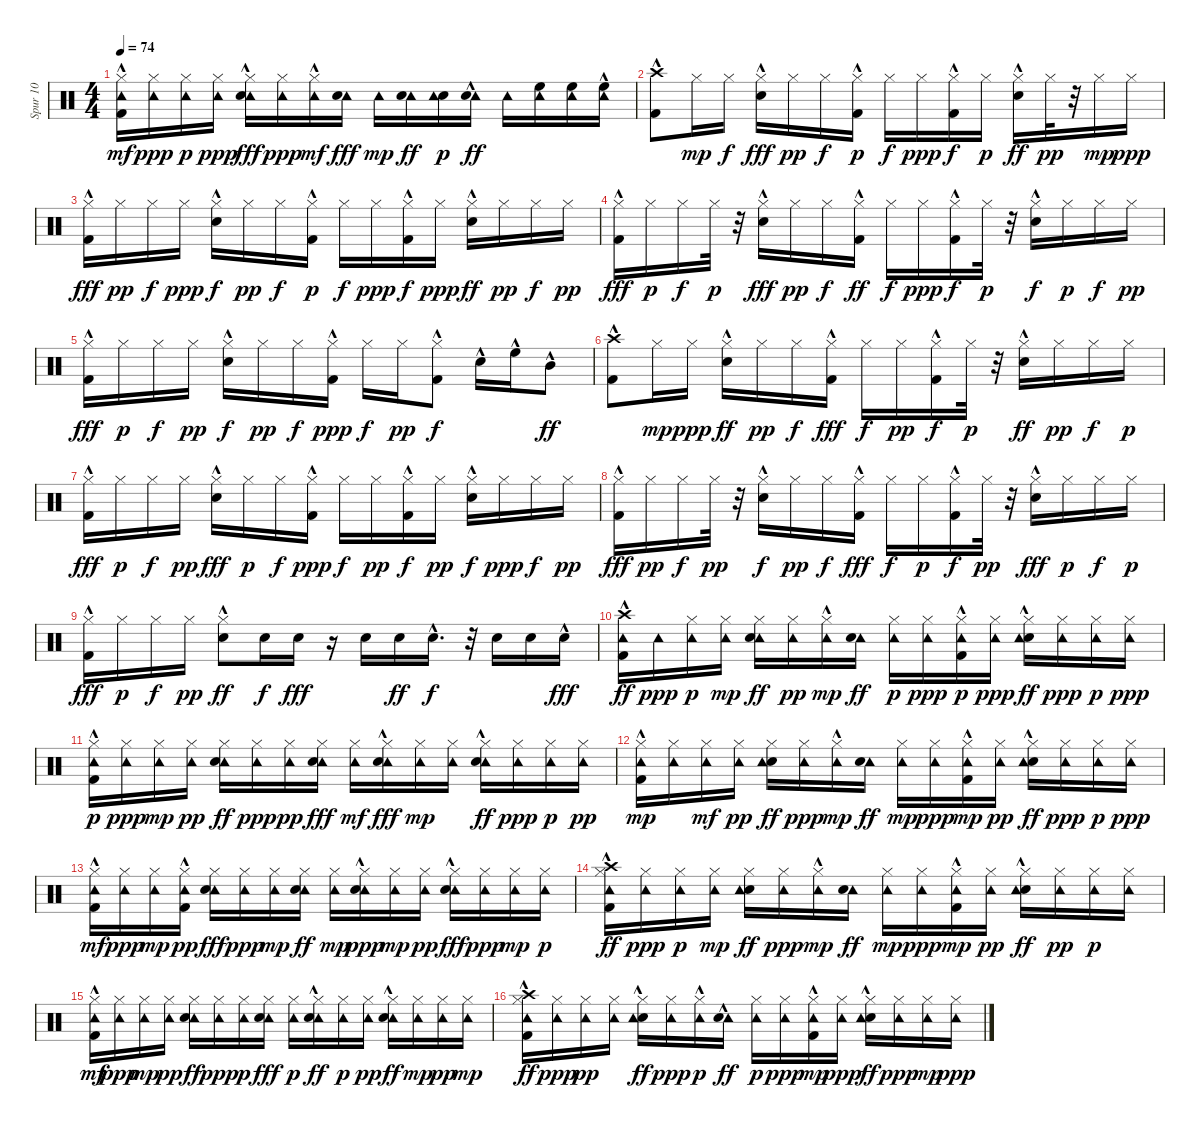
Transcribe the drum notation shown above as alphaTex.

\track ("Spur 10" "Spur 10") {instrument percussion}
\staff {score}
\articulation defaults
\ts (4 4)
\tempo 74
\clef neutral
\ks c
("Kick (hit) 2"{hac} "Hi-Hat (closed)" "Tambourine (hit)").16{dy mf} ("Hi-Hat (closed)" "Tambourine (hit)").16{dy ppp} ("Hi-Hat (closed)" "Tambourine (hit)").16{dy p} ("Hi-Hat (closed)" "Tambourine (hit)").16{dy ppp} ("Hi-Hat (closed)" "Tambourine (hit)" "Snare (hit) 2"{hac}).16{dy fff} ("Hi-Hat (closed)" "Tambourine (hit)").16{dy ppp} ("Hi-Hat (closed)"{hac} "Tambourine (hit)").16{dy mf} ("Tambourine (hit)" "Snare (hit) 2").16{dy fff} "Tambourine (hit)".16{dy mp} ("Tambourine (hit)" "Snare (hit) 2").16{dy ff} ("Snare (hit) 2" "Tambourine (hit)").16{dy p} ("Tambourine (hit)" "Snare (hit) 2"{hac}).16{dy ff} "Tambourine (hit)".16 ("Tambourine (hit)" "High Floor Tom (hit)").16 ("Tambourine (hit)" "High Floor Tom (hit)").16 ("Tambourine (hit)"{hac} "High Floor Tom (hit)"{hac}).16 |
("Kick (hit) 2"{hac} "Crash high (hit)").8 "Hi-Hat (closed)".16{dy mp} "Hi-Hat (closed)".16{dy f} ("Hi-Hat (closed)" "Snare (hit) 2"{hac}).16{dy fff} "Hi-Hat (closed)".16{dy pp} "Hi-Hat (closed)".16{dy f} ("Kick (hit) 2"{hac} "Hi-Hat (closed)").16{dy p} "Hi-Hat (closed)".16{dy f} "Hi-Hat (closed)".16{dy ppp} ("Hi-Hat (closed)" "Kick (hit) 2"{hac}).16{dy f} "Hi-Hat (closed)".16{dy p} ("Hi-Hat (closed)" "Snare (hit) 2"{hac}).16{dy ff} "Hi-Hat (closed)".32{dy pp} r.32 "Hi-Hat (closed)".16{dy mp} "Hi-Hat (closed)".16{dy ppp} |
("Hi-Hat (closed)" "Kick (hit) 2"{hac}).16{dy fff} "Hi-Hat (closed)".16{dy pp} "Hi-Hat (closed)".16{dy f} "Hi-Hat (closed)".16{dy ppp} ("Hi-Hat (closed)" "Snare (hit) 2"{hac}).16{dy f} "Hi-Hat (closed)".16{dy pp} "Hi-Hat (closed)".16{dy f} ("Kick (hit) 2"{hac} "Hi-Hat (closed)").16{dy p} "Hi-Hat (closed)".16{dy f} "Hi-Hat (closed)".16{dy ppp} ("Hi-Hat (closed)" "Kick (hit) 2"{hac}).16{dy f} "Hi-Hat (closed)".16{dy ppp} ("Hi-Hat (closed)" "Snare (hit) 2"{hac}).16{dy ff} "Hi-Hat (closed)".16{dy pp} "Hi-Hat (closed)".16{dy f} "Hi-Hat (closed)".16{dy pp} |
("Hi-Hat (closed)" "Kick (hit) 2"{hac}).16{dy fff} "Hi-Hat (closed)".16{dy p} "Hi-Hat (closed)".16{dy f} "Hi-Hat (closed)".32{dy p} r.32 ("Hi-Hat (closed)" "Snare (hit) 2"{hac}).16{dy fff} "Hi-Hat (closed)".16{dy pp} "Hi-Hat (closed)".16{dy f} ("Hi-Hat (closed)" "Kick (hit) 2"{hac}).16{dy ff} "Hi-Hat (closed)".16{dy f} "Hi-Hat (closed)".16{dy ppp} ("Hi-Hat (closed)" "Kick (hit) 2"{hac}).16{dy f} "Hi-Hat (closed)".32{dy p} r.32 ("Hi-Hat (closed)" "Snare (hit) 2"{hac}).16{dy f} "Hi-Hat (closed)".16{dy p} "Hi-Hat (closed)".16{dy f} "Hi-Hat (closed)".16{dy pp} |
("Hi-Hat (closed)" "Kick (hit) 2"{hac}).16{dy fff} "Hi-Hat (closed)".16{dy p} "Hi-Hat (closed)".16{dy f} "Hi-Hat (closed)".16{dy pp} ("Hi-Hat (closed)" "Snare (hit) 2"{hac}).16{dy f} "Hi-Hat (closed)".16{dy pp} "Hi-Hat (closed)".16{dy f} ("Kick (hit) 2"{hac} "Hi-Hat (closed)").16{dy ppp} "Hi-Hat (closed)".16{dy f} "Hi-Hat (closed)".16{dy pp} ("Hi-Hat (closed)"{hac} "Kick (hit) 2"{hac}).8{dy f} "Snare (hit) 2"{hac}.16 "High Floor Tom (hit)"{hac}.16 "Mid Tom (hit)"{hac}.8{dy ff} |
("Kick (hit) 2"{hac} "Crash high (hit)").8 "Hi-Hat (closed)".16{dy mp} "Hi-Hat (closed)".16{dy ppp} ("Hi-Hat (closed)" "Snare (hit) 2"{hac}).16{dy ff} "Hi-Hat (closed)".16{dy pp} "Hi-Hat (closed)".16{dy f} ("Hi-Hat (closed)" "Kick (hit) 2"{hac}).16{dy fff} "Hi-Hat (closed)".16{dy f} "Hi-Hat (closed)".16{dy pp} ("Kick (hit) 2"{hac} "Hi-Hat (closed)").16{dy f} "Hi-Hat (closed)".32{dy p} r.32 ("Hi-Hat (closed)" "Snare (hit) 2"{hac}).16{dy ff} "Hi-Hat (closed)".16{dy pp} "Hi-Hat (closed)".16{dy f} "Hi-Hat (closed)".16{dy p} |
("Hi-Hat (closed)" "Kick (hit) 2"{hac}).16{dy fff} "Hi-Hat (closed)".16{dy p} "Hi-Hat (closed)".16{dy f} "Hi-Hat (closed)".16{dy pp} ("Hi-Hat (closed)" "Snare (hit) 2"{hac}).16{dy fff} "Hi-Hat (closed)".16{dy p} "Hi-Hat (closed)".16{dy f} ("Kick (hit) 2"{hac} "Hi-Hat (closed)").16{dy ppp} "Hi-Hat (closed)".16{dy f} "Hi-Hat (closed)".16{dy pp} ("Hi-Hat (closed)" "Kick (hit) 2"{hac}).16{dy f} "Hi-Hat (closed)".16{dy pp} ("Hi-Hat (closed)" "Snare (hit) 2"{hac}).16{dy f} "Hi-Hat (closed)".16{dy ppp} "Hi-Hat (closed)".16{dy f} "Hi-Hat (closed)".16{dy pp} |
("Hi-Hat (closed)" "Kick (hit) 2"{hac}).16{dy fff} "Hi-Hat (closed)".16{dy pp} "Hi-Hat (closed)".16{dy f} "Hi-Hat (closed)".32{dy pp} r.32 ("Hi-Hat (closed)" "Snare (hit) 2"{hac}).16{dy f} "Hi-Hat (closed)".16{dy pp} "Hi-Hat (closed)".16{dy f} ("Hi-Hat (closed)" "Kick (hit) 2"{hac}).16{dy fff} "Hi-Hat (closed)".16{dy f} "Hi-Hat (closed)".16{dy p} ("Hi-Hat (closed)" "Kick (hit) 2"{hac}).16{dy f} "Hi-Hat (closed)".32{dy pp} r.32 ("Hi-Hat (closed)" "Snare (hit) 2"{hac}).16{dy fff} "Hi-Hat (closed)".16{dy p} "Hi-Hat (closed)".16{dy f} "Hi-Hat (closed)".16{dy p} |
("Kick (hit) 2"{hac} "Hi-Hat (closed)").16{dy fff} "Hi-Hat (closed)".16{dy p} "Hi-Hat (closed)".16{dy f} "Hi-Hat (closed)".16{dy pp} ("Hi-Hat (closed)"{hac} "Snare (hit) 2").8{dy ff} "Snare (hit) 2".16{dy f} "Snare (hit) 2".16{dy fff} r.16 "Snare (hit) 2".16 "Snare (hit) 2".16{dy ff} "Snare (hit) 2"{hac}.16{d dy f} r.32 "Snare (hit) 2".16 "Snare (hit) 2".16 "Snare (hit) 2"{hac}.16{dy fff} |
("Kick (hit) 2"{hac} "Tambourine (hit)" "Crash high (hit)").16{dy ff} "Tambourine (hit)".16{dy ppp} ("Tambourine (hit)" "Hi-Hat (closed)").16{dy p} ("Hi-Hat (closed)" "Tambourine (hit)").16{dy mp} ("Hi-Hat (closed)" "Tambourine (hit)" "Snare (hit) 2").16{dy ff} ("Hi-Hat (closed)" "Tambourine (hit)").16{dy pp} ("Hi-Hat (closed)"{hac} "Tambourine (hit)").16{dy mp} ("Tambourine (hit)" "Snare (hit) 2").16{dy ff} ("Hi-Hat (closed)" "Tambourine (hit)").16{dy p} ("Hi-Hat (closed)" "Tambourine (hit)").16{dy ppp} ("Hi-Hat (closed)" "Kick (hit) 2"{hac} "Tambourine (hit)").16{dy p} ("Hi-Hat (closed)" "Tambourine (hit)").16{dy ppp} ("Hi-Hat (closed)" "Snare (hit) 2"{hac} "Tambourine (hit)").16{dy ff} ("Hi-Hat (closed)" "Tambourine (hit)").16{dy ppp} ("Hi-Hat (closed)" "Tambourine (hit)").16{dy p} ("Hi-Hat (closed)" "Tambourine (hit)").16{dy ppp} |
("Hi-Hat (closed)" "Kick (hit) 2"{hac} "Tambourine (hit)").16{dy p} ("Hi-Hat (closed)" "Tambourine (hit)").16{dy ppp} ("Hi-Hat (closed)" "Tambourine (hit)").16{dy mp} ("Hi-Hat (closed)" "Tambourine (hit)").16{dy pp} ("Tambourine (hit)" "Hi-Hat (closed)" "Snare (hit) 2").16{dy ff} ("Hi-Hat (closed)" "Tambourine (hit)").16{dy ppp} ("Hi-Hat (closed)" "Tambourine (hit)").16{dy pp} ("Tambourine (hit)" "Hi-Hat (closed)" "Snare (hit) 2").16{dy fff} ("Tambourine (hit)" "Hi-Hat (closed)").16{dy mf} ("Tambourine (hit)" "Hi-Hat (closed)" "Snare (hit) 2"{hac}).16{dy fff} ("Hi-Hat (closed)" "Tambourine (hit)").16{dy mp} ("Tambourine (hit)" "Hi-Hat (closed)").16 ("Hi-Hat (closed)" "Tambourine (hit)" "Snare (hit) 2"{hac}).16{dy ff} ("Hi-Hat (closed)" "Tambourine (hit)").16{dy ppp} ("Hi-Hat (closed)" "Tambourine (hit)").16{dy p} ("Tambourine (hit)" "Hi-Hat (closed)").16{dy pp} |
("Kick (hit) 2"{hac} "Hi-Hat (closed)" "Tambourine (hit)").16{dy mp} ("Tambourine (hit)" "Hi-Hat (closed)").16 ("Hi-Hat (closed)" "Tambourine (hit)").16{dy mf} ("Hi-Hat (closed)" "Tambourine (hit)").16{dy pp} ("Hi-Hat (closed)" "Snare (hit) 2" "Tambourine (hit)").16{dy ff} ("Hi-Hat (closed)" "Tambourine (hit)").16{dy ppp} ("Hi-Hat (closed)"{hac} "Tambourine (hit)").16{dy mp} ("Tambourine (hit)" "Snare (hit) 2").16{dy ff} ("Hi-Hat (closed)" "Tambourine (hit)").16{dy mp} ("Hi-Hat (closed)" "Tambourine (hit)").16{dy ppp} ("Hi-Hat (closed)" "Kick (hit) 2"{hac} "Tambourine (hit)").16{dy mp} ("Hi-Hat (closed)" "Tambourine (hit)").16{dy pp} ("Hi-Hat (closed)" "Snare (hit) 2"{hac} "Tambourine (hit)").16{dy ff} ("Hi-Hat (closed)" "Tambourine (hit)").16{dy ppp} ("Hi-Hat (closed)" "Tambourine (hit)").16{dy p} ("Hi-Hat (closed)" "Tambourine (hit)").16{dy ppp} |
("Hi-Hat (closed)" "Kick (hit) 2"{hac} "Tambourine (hit)").16{dy mf} ("Hi-Hat (closed)" "Tambourine (hit)").16{dy ppp} ("Hi-Hat (closed)" "Tambourine (hit)").16{dy mp} ("Hi-Hat (closed)" "Kick (hit) 2"{hac} "Tambourine (hit)").16{dy pp} ("Hi-Hat (closed)" "Tambourine (hit)" "Snare (hit) 2").16{dy fff} ("Hi-Hat (closed)" "Tambourine (hit)").16{dy ppp} ("Hi-Hat (closed)" "Tambourine (hit)").16{dy mp} ("Tambourine (hit)" "Hi-Hat (closed)" "Snare (hit) 2").16{dy ff} ("Hi-Hat (closed)" "Tambourine (hit)").16{dy mp} ("Hi-Hat (closed)" "Tambourine (hit)" "Snare (hit) 2"{hac}).16{dy ppp} ("Hi-Hat (closed)" "Tambourine (hit)").16{dy mp} ("Hi-Hat (closed)" "Tambourine (hit)").16{dy pp} ("Hi-Hat (closed)" "Tambourine (hit)" "Snare (hit) 2"{hac}).16{dy fff} ("Hi-Hat (closed)" "Tambourine (hit)").16{dy ppp} ("Hi-Hat (closed)" "Tambourine (hit)").16{dy mp} ("Tambourine (hit)" "Hi-Hat (closed)").16{dy p} |
("Tambourine (hit)" "Hi-Hat (closed)" "Kick (hit) 2"{hac} "Crash high (hit)").16{dy ff} ("Hi-Hat (closed)" "Tambourine (hit)").16{dy ppp} ("Tambourine (hit)" "Hi-Hat (closed)").16{dy p} ("Tambourine (hit)" "Hi-Hat (closed)").16{dy mp} ("Hi-Hat (closed)" "Snare (hit) 2" "Tambourine (hit)").16{dy ff} ("Hi-Hat (closed)" "Tambourine (hit)").16{dy ppp} ("Hi-Hat (closed)"{hac} "Tambourine (hit)").16{dy mp} ("Tambourine (hit)" "Snare (hit) 2").16{dy ff} ("Hi-Hat (closed)" "Tambourine (hit)").16{dy mp} ("Hi-Hat (closed)" "Tambourine (hit)").16{dy ppp} ("Hi-Hat (closed)" "Kick (hit) 2"{hac} "Tambourine (hit)").16{dy mp} ("Hi-Hat (closed)" "Tambourine (hit)").16{dy pp} ("Hi-Hat (closed)" "Snare (hit) 2"{hac} "Tambourine (hit)").16{dy ff} ("Hi-Hat (closed)" "Tambourine (hit)").16{dy pp} ("Hi-Hat (closed)" "Tambourine (hit)").16{dy p} ("Tambourine (hit)" "Hi-Hat (closed)").16 |
("Hi-Hat (closed)" "Kick (hit) 2"{hac} "Tambourine (hit)").16{dy mf} ("Hi-Hat (closed)" "Tambourine (hit)").16{dy ppp} ("Hi-Hat (closed)" "Tambourine (hit)").16{dy mp} ("Hi-Hat (closed)" "Tambourine (hit)").16{dy pp} ("Hi-Hat (closed)" "Tambourine (hit)" "Snare (hit) 2").16{dy ff} ("Hi-Hat (closed)" "Tambourine (hit)").16{dy ppp} ("Hi-Hat (closed)" "Tambourine (hit)").16{dy p} ("Tambourine (hit)" "Hi-Hat (closed)" "Snare (hit) 2").16{dy fff} ("Hi-Hat (closed)" "Tambourine (hit)").16{dy p} ("Tambourine (hit)" "Hi-Hat (closed)" "Snare (hit) 2"{hac}).16{dy ff} ("Hi-Hat (closed)" "Tambourine (hit)").16{dy p} ("Hi-Hat (closed)" "Tambourine (hit)").16{dy pp} ("Hi-Hat (closed)" "Tambourine (hit)" "Snare (hit) 2"{hac}).16{dy ff} ("Tambourine (hit)" "Hi-Hat (closed)").16{dy mp} ("Hi-Hat (closed)" "Tambourine (hit)").16{dy pp} ("Tambourine (hit)" "Hi-Hat (closed)").16{dy mp} |
("Kick (hit) 2"{hac} "Hi-Hat (closed)" "Tambourine (hit)" "Crash high (hit)").16{dy ff} ("Hi-Hat (closed)" "Tambourine (hit)").16{dy ppp} ("Hi-Hat (closed)" "Tambourine (hit)").16{dy pp} ("Hi-Hat (closed)" "Tambourine (hit)").16 ("Hi-Hat (closed)" "Snare (hit) 2"{hac} "Tambourine (hit)").16{dy ff} ("Hi-Hat (closed)" "Tambourine (hit)").16{dy ppp} ("Hi-Hat (closed)"{hac} "Tambourine (hit)").16{dy p} ("Tambourine (hit)" "Snare (hit) 2"{hac}).16{dy ff} ("Hi-Hat (closed)" "Tambourine (hit)").16{dy p} ("Hi-Hat (closed)" "Tambourine (hit)").16{dy ppp} ("Kick (hit) 2"{hac} "Hi-Hat (closed)" "Tambourine (hit)").16{dy mp} ("Hi-Hat (closed)" "Tambourine (hit)").16{dy ppp} ("Hi-Hat (closed)" "Snare (hit) 2"{hac} "Tambourine (hit)").16{dy ff} ("Hi-Hat (closed)" "Tambourine (hit)").16{dy ppp} ("Hi-Hat (closed)" "Tambourine (hit)").16{dy mp} ("Hi-Hat (closed)" "Tambourine (hit)").16{dy ppp}
